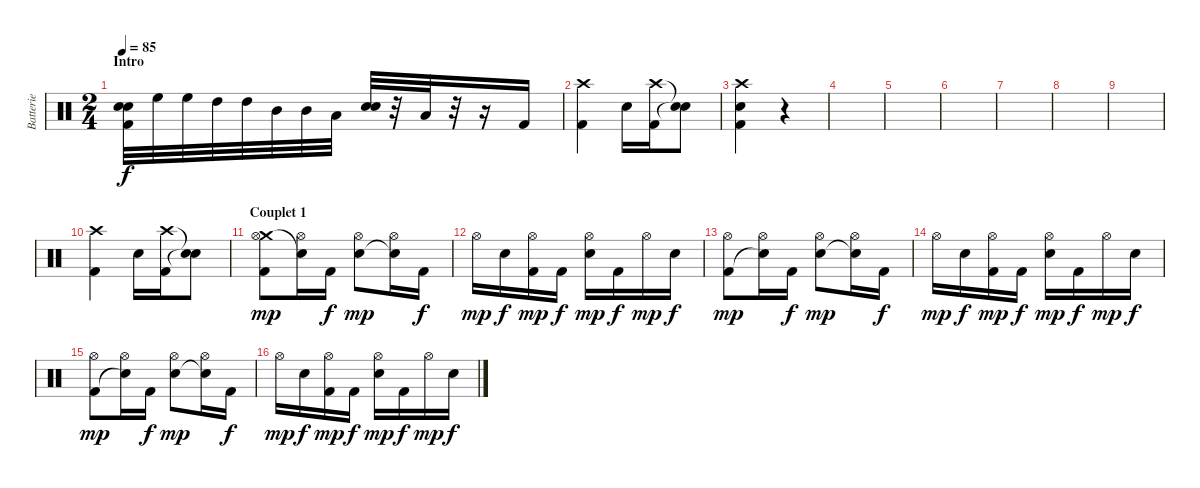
\track ("Batterie" "Batterie") {instrument percussion}
\staff {score}
\articulation defaults
\ts (2 4)
\section ("" "Intro")
\tempo 85
\clef neutral
\ks c
("Electric Snare (hit)" "Electric Snare (hit)" "Kick (hit) 2").32{dy f} "High Floor Tom (hit)".32 "High Floor Tom (hit)".32 "High Tom (hit)".32 "High Tom (hit)".32 "Mid Tom (hit)".32 "Mid Tom (hit)".32 "Low Tom (hit)".32 ("Electric Snare (hit)" "Electric Snare (hit)").32 r.32 "Low Tom (hit)".32 r.32 r.16 "Kick (hit) 2".16 |
("Crash high (hit)" "Kick (hit) 2").4 "Electric Snare (hit)".16 ("Crash high (hit)" "Kick (hit) 2").16 ("Snare (hit)"{t} "Snare (hit)"{t}).8 |
("Crash high (hit)" "Electric Snare (hit)" "Kick (hit) 2").4 r.4 |
|
|
|
|
|
|
("Crash high (hit)" "Kick (hit) 2").4 "Electric Snare (hit)".16 ("Crash high (hit)" "Kick (hit) 2").16 ("Snare (hit)"{t} "Snare (hit)"{t}).8 |
\section ("" "Couplet 1")
("Crash medium (hit)" "Hi-Hat (open)" "Kick (hit) 2").8{dy mp} ("Hi-Hat (open)" "Snare (hit)"{t}).16 "Kick (hit) 2".16{dy f} ("Electric Snare (hit)" "Hi-Hat (open)").8{dy mp} ("Snare (hit)"{t} "Hi-Hat (open)").16 "Kick (hit) 2".16{dy f} |
"Hi-Hat (open)".16{dy mp} "Electric Snare (hit)".16{dy f} ("Hi-Hat (open)" "Kick (hit) 2").16{dy mp} "Kick (hit) 2".16{dy f} ("Electric Snare (hit)" "Hi-Hat (open)").16{dy mp} "Kick (hit) 2".16{dy f} "Hi-Hat (open)".16{dy mp} "Electric Snare (hit)".16{dy f} |
("Hi-Hat (open)" "Kick (hit) 2").8{dy mp} ("Hi-Hat (open)" "Snare (hit)"{t}).16 "Kick (hit) 2".16{dy f} ("Electric Snare (hit)" "Hi-Hat (open)").8{dy mp} ("Snare (hit)"{t} "Hi-Hat (open)").16 "Kick (hit) 2".16{dy f} |
"Hi-Hat (open)".16{dy mp} "Electric Snare (hit)".16{dy f} ("Hi-Hat (open)" "Kick (hit) 2").16{dy mp} "Kick (hit) 2".16{dy f} ("Electric Snare (hit)" "Hi-Hat (open)").16{dy mp} "Kick (hit) 2".16{dy f} "Hi-Hat (open)".16{dy mp} "Electric Snare (hit)".16{dy f} |
("Hi-Hat (open)" "Kick (hit) 2").8{dy mp} ("Hi-Hat (open)" "Snare (hit)"{t}).16 "Kick (hit) 2".16{dy f} ("Electric Snare (hit)" "Hi-Hat (open)").8{dy mp} ("Snare (hit)"{t} "Hi-Hat (open)").16 "Kick (hit) 2".16{dy f} |
"Hi-Hat (open)".16{dy mp} "Electric Snare (hit)".16{dy f} ("Hi-Hat (open)" "Kick (hit) 2").16{dy mp} "Kick (hit) 2".16{dy f} ("Electric Snare (hit)" "Hi-Hat (open)").16{dy mp} "Kick (hit) 2".16{dy f} "Hi-Hat (open)".16{dy mp} "Electric Snare (hit)".16{dy f}
